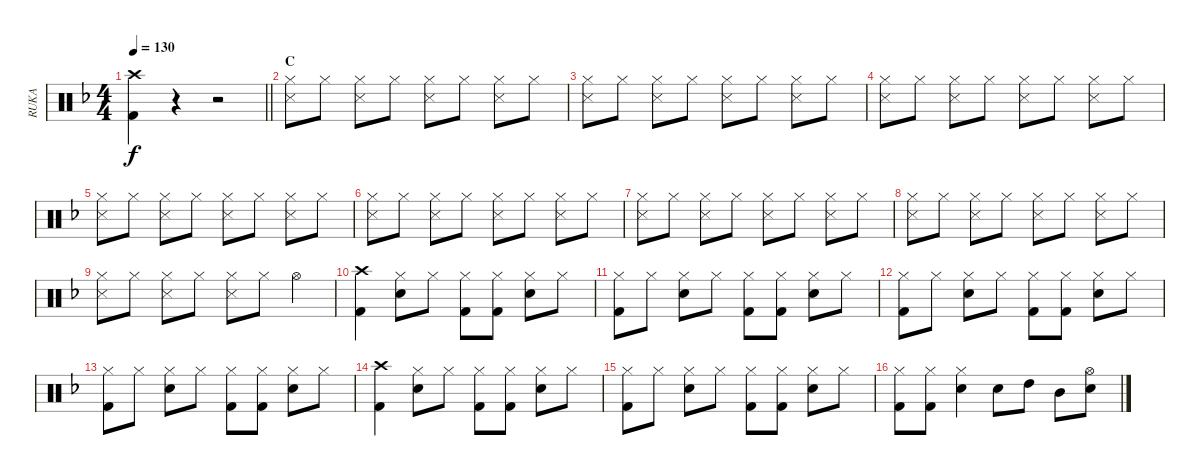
\track ("RUKA" "RUKA") {instrument percussion}
\staff {score}
\articulation defaults
\ts (4 4)
\tempo 130
\clef neutral
\barLineRight lightlight
\ks f
("Crash high (hit)" "Kick (hit) 2").4{dy f} r.4 r.2 |
\section ("" "C")
("Hi-Hat (closed)" "Snare (side stick) 3").8 "Hi-Hat (closed)".8 ("Hi-Hat (closed)" "Snare (side stick) 3").8 "Hi-Hat (closed)".8 ("Hi-Hat (closed)" "Snare (side stick) 3").8 "Hi-Hat (closed)".8 ("Hi-Hat (closed)" "Snare (side stick) 3").8 "Hi-Hat (closed)".8 |
("Hi-Hat (closed)" "Snare (side stick) 3").8 "Hi-Hat (closed)".8 ("Hi-Hat (closed)" "Snare (side stick) 3").8 "Hi-Hat (closed)".8 ("Hi-Hat (closed)" "Snare (side stick) 3").8 "Hi-Hat (closed)".8 ("Hi-Hat (closed)" "Snare (side stick) 3").8 "Hi-Hat (closed)".8 |
("Hi-Hat (closed)" "Snare (side stick) 3").8 "Hi-Hat (closed)".8 ("Hi-Hat (closed)" "Snare (side stick) 3").8 "Hi-Hat (closed)".8 ("Hi-Hat (closed)" "Snare (side stick) 3").8 "Hi-Hat (closed)".8 ("Hi-Hat (closed)" "Snare (side stick) 3").8 "Hi-Hat (closed)".8 |
("Hi-Hat (closed)" "Snare (side stick) 3").8 "Hi-Hat (closed)".8 ("Hi-Hat (closed)" "Snare (side stick) 3").8 "Hi-Hat (closed)".8 ("Hi-Hat (closed)" "Snare (side stick) 3").8 "Hi-Hat (closed)".8 ("Hi-Hat (closed)" "Snare (side stick) 3").8 "Hi-Hat (closed)".8 |
("Hi-Hat (closed)" "Snare (side stick) 3").8 "Hi-Hat (closed)".8 ("Hi-Hat (closed)" "Snare (side stick) 3").8 "Hi-Hat (closed)".8 ("Hi-Hat (closed)" "Snare (side stick) 3").8 "Hi-Hat (closed)".8 ("Hi-Hat (closed)" "Snare (side stick) 3").8 "Hi-Hat (closed)".8 |
("Hi-Hat (closed)" "Snare (side stick) 3").8 "Hi-Hat (closed)".8 ("Hi-Hat (closed)" "Snare (side stick) 3").8 "Hi-Hat (closed)".8 ("Hi-Hat (closed)" "Snare (side stick) 3").8 "Hi-Hat (closed)".8 ("Hi-Hat (closed)" "Snare (side stick) 3").8 "Hi-Hat (closed)".8 |
("Hi-Hat (closed)" "Snare (side stick) 3").8 "Hi-Hat (closed)".8 ("Hi-Hat (closed)" "Snare (side stick) 3").8 "Hi-Hat (closed)".8 ("Hi-Hat (closed)" "Snare (side stick) 3").8 "Hi-Hat (closed)".8 ("Hi-Hat (closed)" "Snare (side stick) 3").8 "Hi-Hat (closed)".8 |
("Hi-Hat (closed)" "Snare (side stick) 3").8 "Hi-Hat (closed)".8 ("Hi-Hat (closed)" "Snare (side stick) 3").8 "Hi-Hat (closed)".8 ("Hi-Hat (closed)" "Snare (side stick) 3").8 "Hi-Hat (closed)".8 "Hi-Hat (open)".4 |
("Crash high (hit)" "Kick (hit) 2").4 ("Hi-Hat (closed)" "Snare (hit) 2").8 "Hi-Hat (closed)".8 ("Hi-Hat (closed)" "Kick (hit) 2").8 ("Hi-Hat (closed)" "Kick (hit) 2").8 ("Hi-Hat (closed)" "Snare (hit) 2").8 "Hi-Hat (closed)".8 |
("Hi-Hat (closed)" "Kick (hit) 2").8 "Hi-Hat (closed)".8 ("Hi-Hat (closed)" "Snare (hit) 2").8 "Hi-Hat (closed)".8 ("Hi-Hat (closed)" "Kick (hit) 2").8 ("Hi-Hat (closed)" "Kick (hit) 2").8 ("Hi-Hat (closed)" "Snare (hit) 2").8 "Hi-Hat (closed)".8 |
("Hi-Hat (closed)" "Kick (hit) 2").8 "Hi-Hat (closed)".8 ("Hi-Hat (closed)" "Snare (hit) 2").8 "Hi-Hat (closed)".8 ("Hi-Hat (closed)" "Kick (hit) 2").8 ("Hi-Hat (closed)" "Kick (hit) 2").8 ("Hi-Hat (closed)" "Snare (hit) 2").8 "Hi-Hat (closed)".8 |
("Hi-Hat (closed)" "Kick (hit) 2").8 "Hi-Hat (closed)".8 ("Hi-Hat (closed)" "Snare (hit) 2").8 "Hi-Hat (closed)".8 ("Hi-Hat (closed)" "Kick (hit) 2").8 ("Hi-Hat (closed)" "Kick (hit) 2").8 ("Hi-Hat (closed)" "Snare (hit) 2").8 "Hi-Hat (closed)".8 |
("Crash high (hit)" "Kick (hit) 2").4 ("Hi-Hat (closed)" "Snare (hit) 2").8 "Hi-Hat (closed)".8 ("Hi-Hat (closed)" "Kick (hit) 2").8 ("Hi-Hat (closed)" "Kick (hit) 2").8 ("Hi-Hat (closed)" "Snare (hit) 2").8 "Hi-Hat (closed)".8 |
("Hi-Hat (closed)" "Kick (hit) 2").8 "Hi-Hat (closed)".8 ("Hi-Hat (closed)" "Snare (hit) 2").8 "Hi-Hat (closed)".8 ("Hi-Hat (closed)" "Kick (hit) 2").8 ("Hi-Hat (closed)" "Kick (hit) 2").8 ("Hi-Hat (closed)" "Snare (hit) 2").8 "Hi-Hat (closed)".8 |
("Hi-Hat (closed)" "Kick (hit) 2").8 ("Hi-Hat (closed)" "Kick (hit) 2").8 ("Hi-Hat (closed)" "Snare (hit) 2").4 "Snare (hit) 2".8 "High Tom (hit)".8 "Mid Tom (hit)".8 ("Hi-Hat (open)" "Snare (hit) 2").8
